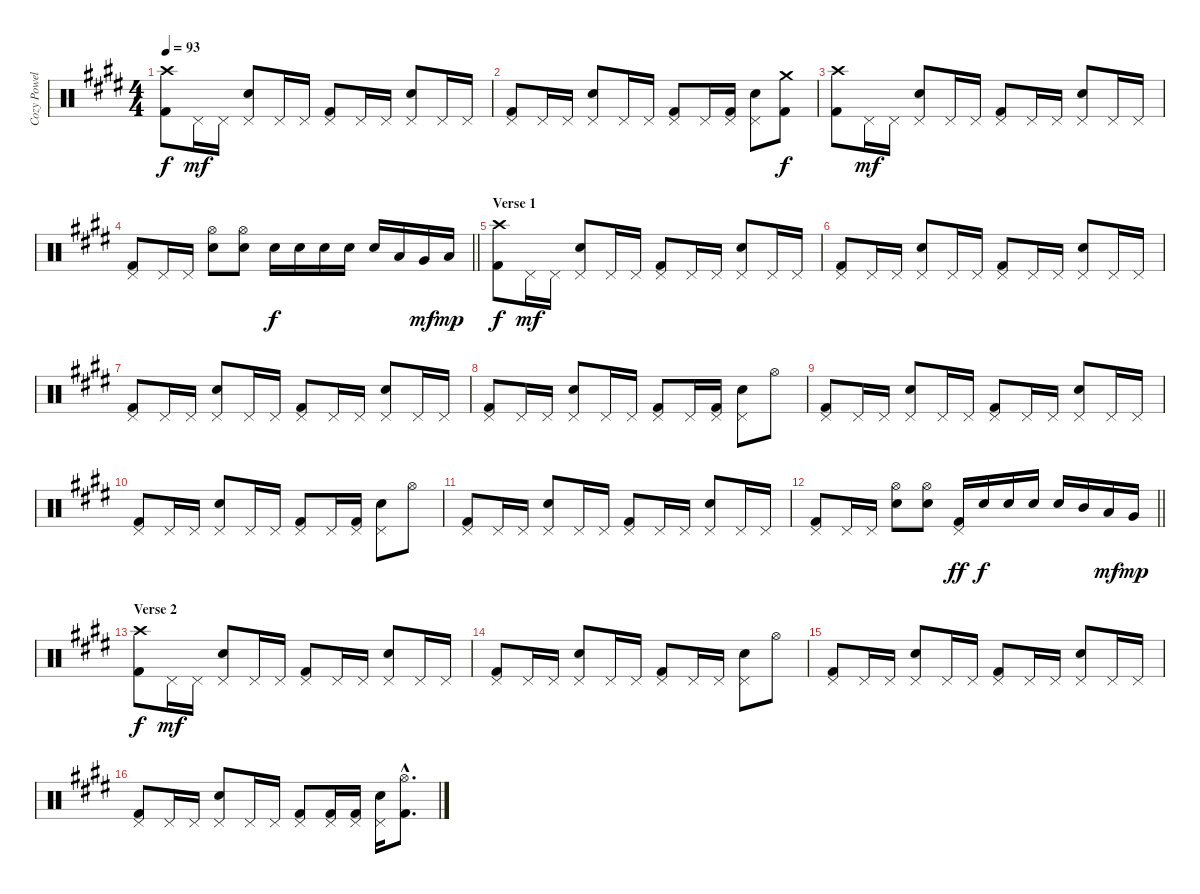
\track ("Cozy Powell" "Cozy Powel") {instrument percussion}
\staff {score}
\articulation defaults
\ts (4 4)
\tempo 93
\clef neutral
\ks c#minor
("Kick (hit) 2" "Crash high (hit)").8{dy f} "Pedal Hi-Hat (hit)".16{dy mf} "Pedal Hi-Hat (hit)".16 ("Pedal Hi-Hat (hit)" "Snare (hit) 2").8 "Pedal Hi-Hat (hit)".16 "Pedal Hi-Hat (hit)".16 ("Kick (hit) 2" "Pedal Hi-Hat (hit)").8 "Pedal Hi-Hat (hit)".16 "Pedal Hi-Hat (hit)".16 ("Pedal Hi-Hat (hit)" "Snare (hit) 2").8 "Pedal Hi-Hat (hit)".16 "Pedal Hi-Hat (hit)".16 |
("Kick (hit) 2" "Pedal Hi-Hat (hit)").8 "Pedal Hi-Hat (hit)".16 "Pedal Hi-Hat (hit)".16 ("Pedal Hi-Hat (hit)" "Snare (hit) 2").8 "Pedal Hi-Hat (hit)".16 "Pedal Hi-Hat (hit)".16 ("Kick (hit) 2" "Pedal Hi-Hat (hit)").8 "Pedal Hi-Hat (hit)".16 ("Kick (hit) 2" "Pedal Hi-Hat (hit)").16 ("Pedal Hi-Hat (hit)" "Snare (hit) 2").8 ("Kick (hit) 2" "Crash medium (hit)").8{dy f} |
("Kick (hit) 2" "Crash high (hit)").8 "Pedal Hi-Hat (hit)".16{dy mf} "Pedal Hi-Hat (hit)".16 ("Pedal Hi-Hat (hit)" "Snare (hit) 2").8 "Pedal Hi-Hat (hit)".16 "Pedal Hi-Hat (hit)".16 ("Kick (hit) 2" "Pedal Hi-Hat (hit)").8 "Pedal Hi-Hat (hit)".16 "Pedal Hi-Hat (hit)".16 ("Pedal Hi-Hat (hit)" "Snare (hit) 2").8 "Pedal Hi-Hat (hit)".16 "Pedal Hi-Hat (hit)".16 |
\barLineRight lightlight
("Kick (hit) 2" "Pedal Hi-Hat (hit)").8 "Pedal Hi-Hat (hit)".16 "Pedal Hi-Hat (hit)".16 ("Hi-Hat (open)" "Snare (hit) 2").8 ("Hi-Hat (open)" "Snare (hit) 2").8 "Snare (hit) 2".16{dy f} "Snare (hit) 2".16 "Snare (hit) 2".16 "Snare (hit) 2".16 "Snare (hit) 2".16 "Low Tom (hit)".16 "Very Low Tom (hit)".16{dy mf} "Low Floor Tom (hit)".16{dy mp} |
\section ("" "Verse 1")
("Kick (hit) 2" "Crash high (hit)").8{dy f} "Pedal Hi-Hat (hit)".16{dy mf} "Pedal Hi-Hat (hit)".16 ("Pedal Hi-Hat (hit)" "Snare (hit) 2").8 "Pedal Hi-Hat (hit)".16 "Pedal Hi-Hat (hit)".16 ("Kick (hit) 2" "Pedal Hi-Hat (hit)").8 "Pedal Hi-Hat (hit)".16 "Pedal Hi-Hat (hit)".16 ("Pedal Hi-Hat (hit)" "Snare (hit) 2").8 "Pedal Hi-Hat (hit)".16 "Pedal Hi-Hat (hit)".16 |
("Kick (hit) 2" "Pedal Hi-Hat (hit)").8 "Pedal Hi-Hat (hit)".16 "Pedal Hi-Hat (hit)".16 ("Pedal Hi-Hat (hit)" "Snare (hit) 2").8 "Pedal Hi-Hat (hit)".16 "Pedal Hi-Hat (hit)".16 ("Kick (hit) 2" "Pedal Hi-Hat (hit)").8 "Pedal Hi-Hat (hit)".16 "Pedal Hi-Hat (hit)".16 ("Pedal Hi-Hat (hit)" "Snare (hit) 2").8 "Pedal Hi-Hat (hit)".16 "Pedal Hi-Hat (hit)".16 |
("Kick (hit) 2" "Pedal Hi-Hat (hit)").8 "Pedal Hi-Hat (hit)".16 "Pedal Hi-Hat (hit)".16 ("Pedal Hi-Hat (hit)" "Snare (hit) 2").8 "Pedal Hi-Hat (hit)".16 "Pedal Hi-Hat (hit)".16 ("Kick (hit) 2" "Pedal Hi-Hat (hit)").8 "Pedal Hi-Hat (hit)".16 "Pedal Hi-Hat (hit)".16 ("Pedal Hi-Hat (hit)" "Snare (hit) 2").8 "Pedal Hi-Hat (hit)".16 "Pedal Hi-Hat (hit)".16 |
("Kick (hit) 2" "Pedal Hi-Hat (hit)").8 "Pedal Hi-Hat (hit)".16 "Pedal Hi-Hat (hit)".16 ("Pedal Hi-Hat (hit)" "Snare (hit) 2").8 "Pedal Hi-Hat (hit)".16 "Pedal Hi-Hat (hit)".16 ("Kick (hit) 2" "Pedal Hi-Hat (hit)").8 "Pedal Hi-Hat (hit)".16 ("Kick (hit) 2" "Pedal Hi-Hat (hit)").16 ("Pedal Hi-Hat (hit)" "Snare (hit) 2").8 "Hi-Hat (open)".8 |
("Kick (hit) 2" "Pedal Hi-Hat (hit)").8 "Pedal Hi-Hat (hit)".16 "Pedal Hi-Hat (hit)".16 ("Pedal Hi-Hat (hit)" "Snare (hit) 2").8 "Pedal Hi-Hat (hit)".16 "Pedal Hi-Hat (hit)".16 ("Kick (hit) 2" "Pedal Hi-Hat (hit)").8 "Pedal Hi-Hat (hit)".16 "Pedal Hi-Hat (hit)".16 ("Pedal Hi-Hat (hit)" "Snare (hit) 2").8 "Pedal Hi-Hat (hit)".16 "Pedal Hi-Hat (hit)".16 |
("Kick (hit) 2" "Pedal Hi-Hat (hit)").8 "Pedal Hi-Hat (hit)".16 "Pedal Hi-Hat (hit)".16 ("Pedal Hi-Hat (hit)" "Snare (hit) 2").8 "Pedal Hi-Hat (hit)".16 "Pedal Hi-Hat (hit)".16 ("Kick (hit) 2" "Pedal Hi-Hat (hit)").8 "Pedal Hi-Hat (hit)".16 ("Kick (hit) 2" "Pedal Hi-Hat (hit)").16 ("Pedal Hi-Hat (hit)" "Snare (hit) 2").8 "Hi-Hat (open)".8 |
("Kick (hit) 2" "Pedal Hi-Hat (hit)").8 "Pedal Hi-Hat (hit)".16 "Pedal Hi-Hat (hit)".16 ("Pedal Hi-Hat (hit)" "Snare (hit) 2").8 "Pedal Hi-Hat (hit)".16 "Pedal Hi-Hat (hit)".16 ("Kick (hit) 2" "Pedal Hi-Hat (hit)").8 "Pedal Hi-Hat (hit)".16 "Pedal Hi-Hat (hit)".16 ("Pedal Hi-Hat (hit)" "Snare (hit) 2").8 "Pedal Hi-Hat (hit)".16 "Pedal Hi-Hat (hit)".16 |
\barLineRight lightlight
("Kick (hit) 2" "Pedal Hi-Hat (hit)").8 "Pedal Hi-Hat (hit)".16 "Pedal Hi-Hat (hit)".16 ("Hi-Hat (open)" "Snare (hit) 2").8 ("Hi-Hat (open)" "Snare (hit) 2").8 ("Kick (hit) 2" "Pedal Hi-Hat (hit)").16{dy ff} "Snare (hit) 2".16{dy f} "Snare (hit) 2".16 "Snare (hit) 2".16 "Snare (hit) 2".16 "Mid Tom (hit)".16 "Low Tom (hit)".16{dy mf} "Very Low Tom (hit)".16{dy mp} |
\section ("" "Verse 2")
("Kick (hit) 2" "Crash high (hit)").8{dy f} "Pedal Hi-Hat (hit)".16{dy mf} "Pedal Hi-Hat (hit)".16 ("Pedal Hi-Hat (hit)" "Snare (hit) 2").8 "Pedal Hi-Hat (hit)".16 "Pedal Hi-Hat (hit)".16 ("Kick (hit) 2" "Pedal Hi-Hat (hit)").8 "Pedal Hi-Hat (hit)".16 "Pedal Hi-Hat (hit)".16 ("Pedal Hi-Hat (hit)" "Snare (hit) 2").8 "Pedal Hi-Hat (hit)".16 "Pedal Hi-Hat (hit)".16 |
("Kick (hit) 2" "Pedal Hi-Hat (hit)").8 "Pedal Hi-Hat (hit)".16 "Pedal Hi-Hat (hit)".16 ("Pedal Hi-Hat (hit)" "Snare (hit) 2").8 "Pedal Hi-Hat (hit)".16 "Pedal Hi-Hat (hit)".16 ("Kick (hit) 2" "Pedal Hi-Hat (hit)").8 "Pedal Hi-Hat (hit)".16 "Pedal Hi-Hat (hit)".16 ("Pedal Hi-Hat (hit)" "Snare (hit) 2").8 "Hi-Hat (open)".8 |
("Kick (hit) 2" "Pedal Hi-Hat (hit)").8 "Pedal Hi-Hat (hit)".16 "Pedal Hi-Hat (hit)".16 ("Pedal Hi-Hat (hit)" "Snare (hit) 2").8 "Pedal Hi-Hat (hit)".16 "Pedal Hi-Hat (hit)".16 ("Kick (hit) 2" "Pedal Hi-Hat (hit)").8 "Pedal Hi-Hat (hit)".16 "Pedal Hi-Hat (hit)".16 ("Pedal Hi-Hat (hit)" "Snare (hit) 2").8 "Pedal Hi-Hat (hit)".16 "Pedal Hi-Hat (hit)".16 |
("Kick (hit) 2" "Pedal Hi-Hat (hit)").8 "Pedal Hi-Hat (hit)".16 "Pedal Hi-Hat (hit)".16 ("Pedal Hi-Hat (hit)" "Snare (hit) 2").8 "Pedal Hi-Hat (hit)".16 "Pedal Hi-Hat (hit)".16 ("Kick (hit) 2" "Pedal Hi-Hat (hit)").8 ("Kick (hit) 2" "Pedal Hi-Hat (hit)").16 ("Kick (hit) 2" "Pedal Hi-Hat (hit)").16 ("Pedal Hi-Hat (hit)" "Snare (hit) 2").16 ("Kick (hit) 2"{hac} "Hi-Hat (open)"{hac}).8{d}
